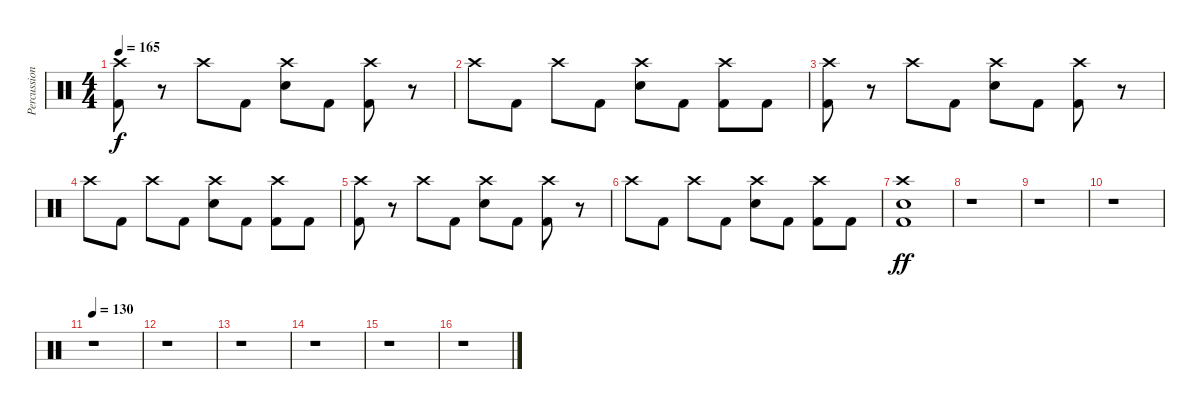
\track ("Percussion" "Percussion") {instrument percussion}
\staff {score}
\articulation defaults
\ts (4 4)
\tempo 165
\clef neutral
\ks c
("Crash high (hit)" "Kick (hit) 2").8{dy f} r.8 "Crash high (hit)".8 "Kick (hit) 2".8 ("Crash high (hit)" "Snare (hit) 2").8 "Kick (hit) 2".8 ("Crash high (hit)" "Kick (hit) 2").8 r.8 |
"Crash high (hit)".8 "Kick (hit) 2".8 "Crash high (hit)".8 "Kick (hit) 2".8 ("Crash high (hit)" "Snare (hit) 2").8 "Kick (hit) 2".8 ("Crash high (hit)" "Kick (hit) 2").8 "Kick (hit) 2".8 |
("Crash high (hit)" "Kick (hit) 2").8 r.8 "Crash high (hit)".8 "Kick (hit) 2".8 ("Crash high (hit)" "Snare (hit) 2").8 "Kick (hit) 2".8 ("Crash high (hit)" "Kick (hit) 2").8 r.8 |
"Crash high (hit)".8 "Kick (hit) 2".8 "Crash high (hit)".8 "Kick (hit) 2".8 ("Crash high (hit)" "Snare (hit) 2").8 "Kick (hit) 2".8 ("Crash high (hit)" "Kick (hit) 2").8 "Kick (hit) 2".8 |
("Crash high (hit)" "Kick (hit) 2").8 r.8 "Crash high (hit)".8 "Kick (hit) 2".8 ("Crash high (hit)" "Snare (hit) 2").8 "Kick (hit) 2".8 ("Crash high (hit)" "Kick (hit) 2").8 r.8 |
"Crash high (hit)".8 "Kick (hit) 2".8 "Crash high (hit)".8 "Kick (hit) 2".8 ("Crash high (hit)" "Snare (hit) 2").8 "Kick (hit) 2".8 ("Crash high (hit)" "Kick (hit) 2").8 "Kick (hit) 2".8 |
("Crash high (hit)" "Snare (hit) 2" "Kick (hit) 2").1{dy ff} |
r.1 |
r.1 |
r.1 |
\tempo 130
r.1 |
r.1 |
r.1 |
r.1 |
r.1 |
r.1
